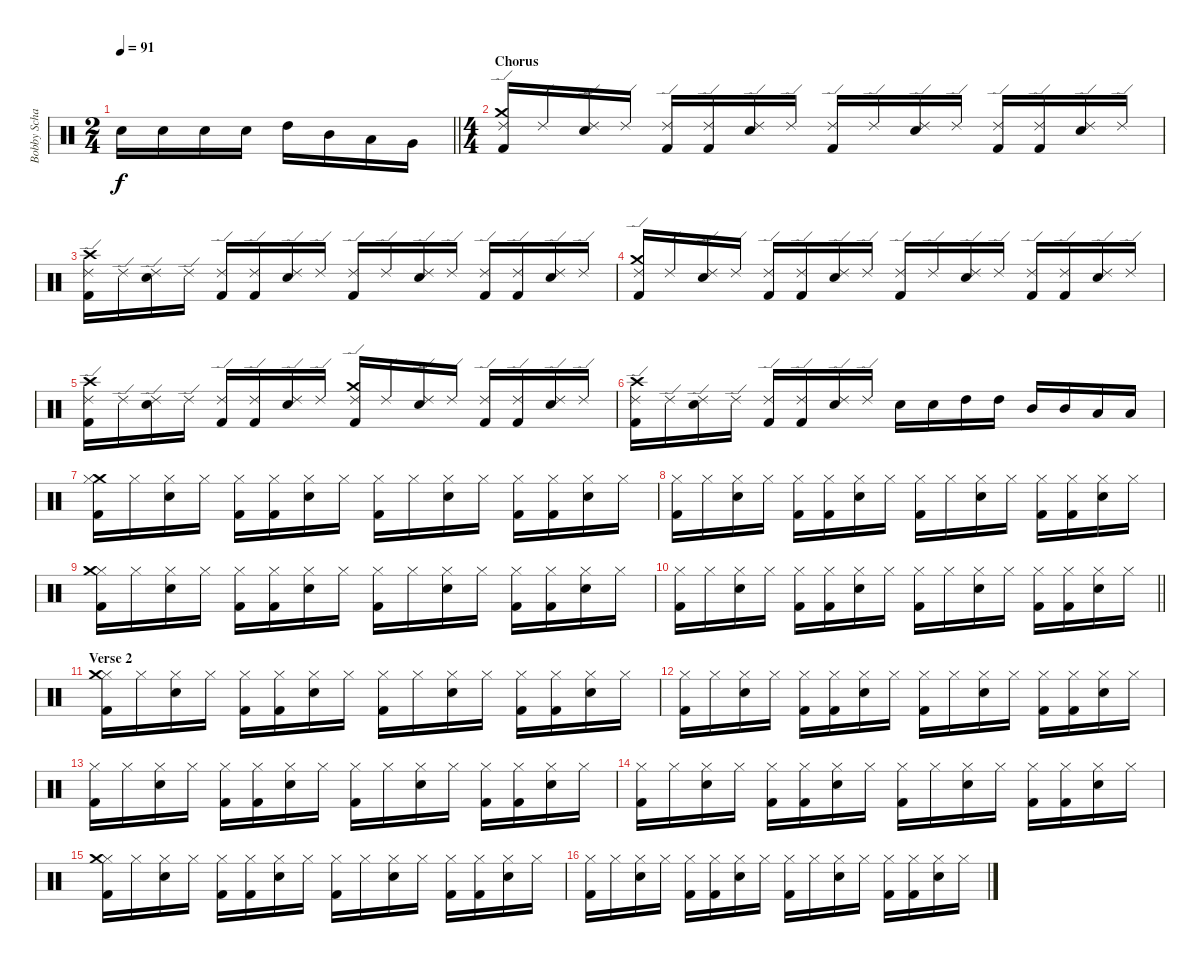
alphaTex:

\track ("Bobby Schayer " "Bobby Scha") {instrument percussion}
\staff {score}
\articulation defaults
\ts (2 4)
\tempo 91
\clef neutral
\barLineRight lightlight
\ks c "Snare (hit) 2".16{dy f} "Snare (hit) 2".16 "Snare (hit) 2".16 "Snare (hit) 2".16 "High Tom (hit)".16 "Mid Tom (hit)".16 "Low Tom (hit)".16 "Very Low Tom (hit)".16
|
\ts (4 4)
\section ("" "Chorus")
("Ride (edge) 2" "Crash medium (hit)" "Kick (hit) 2").16 "Ride (edge) 2".16 ("Ride (edge) 2" "Snare (hit) 2").16 "Ride (edge) 2".16 ("Ride (edge) 2" "Kick (hit) 2").16 ("Ride (edge) 2" "Kick (hit) 2").16 ("Ride (edge) 2" "Snare (hit) 2").16 "Ride (edge) 2".16 ("Ride (edge) 2" "Kick (hit) 2").16 "Ride (edge) 2".16 ("Ride (edge) 2" "Snare (hit) 2").16 "Ride (edge) 2".16 ("Ride (edge) 2" "Kick (hit) 2").16 ("Ride (edge) 2" "Kick (hit) 2").16 ("Ride (edge) 2" "Snare (hit) 2").16 "Ride (edge) 2".16 |
("Ride (edge) 2" "Crash high (hit)" "Kick (hit) 2").16 "Ride (edge) 2".16 ("Ride (edge) 2" "Snare (hit) 2").16 "Ride (edge) 2".16 ("Ride (edge) 2" "Kick (hit) 2").16 ("Ride (edge) 2" "Kick (hit) 2").16 ("Ride (edge) 2" "Snare (hit) 2").16 "Ride (edge) 2".16 ("Ride (edge) 2" "Kick (hit) 2").16 "Ride (edge) 2".16 ("Ride (edge) 2" "Snare (hit) 2").16 "Ride (edge) 2".16 ("Ride (edge) 2" "Kick (hit) 2").16 ("Ride (edge) 2" "Kick (hit) 2").16 ("Ride (edge) 2" "Snare (hit) 2").16 "Ride (edge) 2".16 |
("Ride (edge) 2" "Crash medium (hit)" "Kick (hit) 2").16 "Ride (edge) 2".16 ("Ride (edge) 2" "Snare (hit) 2").16 "Ride (edge) 2".16 ("Ride (edge) 2" "Kick (hit) 2").16 ("Ride (edge) 2" "Kick (hit) 2").16 ("Ride (edge) 2" "Snare (hit) 2").16 "Ride (edge) 2".16 ("Ride (edge) 2" "Kick (hit) 2").16 "Ride (edge) 2".16 ("Ride (edge) 2" "Snare (hit) 2").16 "Ride (edge) 2".16 ("Ride (edge) 2" "Kick (hit) 2").16 ("Ride (edge) 2" "Kick (hit) 2").16 ("Ride (edge) 2" "Snare (hit) 2").16 "Ride (edge) 2".16 |
("Ride (edge) 2" "Crash high (hit)" "Kick (hit) 2").16 "Ride (edge) 2".16 ("Ride (edge) 2" "Snare (hit) 2").16 "Ride (edge) 2".16 ("Ride (edge) 2" "Kick (hit) 2").16 ("Ride (edge) 2" "Kick (hit) 2").16 ("Ride (edge) 2" "Snare (hit) 2").16 "Ride (edge) 2".16 ("Ride (edge) 2" "Crash medium (hit)" "Kick (hit) 2").16 "Ride (edge) 2".16 ("Ride (edge) 2" "Snare (hit) 2").16 "Ride (edge) 2".16 ("Ride (edge) 2" "Kick (hit) 2").16 ("Ride (edge) 2" "Kick (hit) 2").16 ("Ride (edge) 2" "Snare (hit) 2").16 "Ride (edge) 2".16 |
("Ride (edge) 2" "Crash high (hit)" "Kick (hit) 2").16 "Ride (edge) 2".16 ("Ride (edge) 2" "Snare (hit) 2").16 "Ride (edge) 2".16 ("Ride (edge) 2" "Kick (hit) 2").16 ("Ride (edge) 2" "Kick (hit) 2").16 ("Ride (edge) 2" "Snare (hit) 2").16 "Ride (edge) 2".16 "Snare (hit) 2".16 "Snare (hit) 2".16 "High Tom (hit)".16 "High Tom (hit)".16 "Mid Tom (hit)".16 "Mid Tom (hit)".16 "Low Tom (hit)".16 "Low Tom (hit)".16 |
("Crash medium (hit)" "Hi-Hat (closed)" "Kick (hit) 2").16 "Hi-Hat (closed)".16 ("Hi-Hat (closed)" "Snare (hit) 2").16 "Hi-Hat (closed)".16 ("Hi-Hat (closed)" "Kick (hit) 2").16 ("Hi-Hat (closed)" "Kick (hit) 2").16 ("Hi-Hat (closed)" "Snare (hit) 2").16 "Hi-Hat (closed)".16 ("Hi-Hat (closed)" "Kick (hit) 2").16 "Hi-Hat (closed)".16 ("Hi-Hat (closed)" "Snare (hit) 2").16 "Hi-Hat (closed)".16 ("Hi-Hat (closed)" "Kick (hit) 2").16 ("Hi-Hat (closed)" "Kick (hit) 2").16 ("Hi-Hat (closed)" "Snare (hit) 2").16 "Hi-Hat (closed)".16 |
("Hi-Hat (closed)" "Kick (hit) 2").16 "Hi-Hat (closed)".16 ("Hi-Hat (closed)" "Snare (hit) 2").16 "Hi-Hat (closed)".16 ("Hi-Hat (closed)" "Kick (hit) 2").16 ("Hi-Hat (closed)" "Kick (hit) 2").16 ("Hi-Hat (closed)" "Snare (hit) 2").16 "Hi-Hat (closed)".16 ("Hi-Hat (closed)" "Kick (hit) 2").16 "Hi-Hat (closed)".16 ("Hi-Hat (closed)" "Snare (hit) 2").16 "Hi-Hat (closed)".16 ("Hi-Hat (closed)" "Kick (hit) 2").16 ("Hi-Hat (closed)" "Kick (hit) 2").16 ("Hi-Hat (closed)" "Snare (hit) 2").16 "Hi-Hat (closed)".16 |
("Hi-Hat (closed)" "Crash medium (hit)" "Kick (hit) 2").16 "Hi-Hat (closed)".16 ("Hi-Hat (closed)" "Snare (hit) 2").16 "Hi-Hat (closed)".16 ("Hi-Hat (closed)" "Kick (hit) 2").16 ("Hi-Hat (closed)" "Kick (hit) 2").16 ("Hi-Hat (closed)" "Snare (hit) 2").16 "Hi-Hat (closed)".16 ("Hi-Hat (closed)" "Kick (hit) 2").16 "Hi-Hat (closed)".16 ("Hi-Hat (closed)" "Snare (hit) 2").16 "Hi-Hat (closed)".16 ("Hi-Hat (closed)" "Kick (hit) 2").16 ("Hi-Hat (closed)" "Kick (hit) 2").16 ("Hi-Hat (closed)" "Snare (hit) 2").16 "Hi-Hat (closed)".16 |
\barLineRight lightlight
("Hi-Hat (closed)" "Kick (hit) 2").16 "Hi-Hat (closed)".16 ("Hi-Hat (closed)" "Snare (hit) 2").16 "Hi-Hat (closed)".16 ("Hi-Hat (closed)" "Kick (hit) 2").16 ("Hi-Hat (closed)" "Kick (hit) 2").16 ("Hi-Hat (closed)" "Snare (hit) 2").16 "Hi-Hat (closed)".16 ("Hi-Hat (closed)" "Kick (hit) 2").16 "Hi-Hat (closed)".16 ("Hi-Hat (closed)" "Snare (hit) 2").16 "Hi-Hat (closed)".16 ("Hi-Hat (closed)" "Kick (hit) 2").16 ("Hi-Hat (closed)" "Kick (hit) 2").16 ("Hi-Hat (closed)" "Snare (hit) 2").16 "Hi-Hat (closed)".16 |
\section ("" "Verse 2")
("Hi-Hat (closed)" "Crash medium (hit)" "Kick (hit) 2").16 "Hi-Hat (closed)".16 ("Hi-Hat (closed)" "Snare (hit) 2").16 "Hi-Hat (closed)".16 ("Hi-Hat (closed)" "Kick (hit) 2").16 ("Hi-Hat (closed)" "Kick (hit) 2").16 ("Hi-Hat (closed)" "Snare (hit) 2").16 "Hi-Hat (closed)".16 ("Hi-Hat (closed)" "Kick (hit) 2").16 "Hi-Hat (closed)".16 ("Hi-Hat (closed)" "Snare (hit) 2").16 "Hi-Hat (closed)".16 ("Hi-Hat (closed)" "Kick (hit) 2").16 ("Hi-Hat (closed)" "Kick (hit) 2").16 ("Hi-Hat (closed)" "Snare (hit) 2").16 "Hi-Hat (closed)".16 |
("Hi-Hat (closed)" "Kick (hit) 2").16 "Hi-Hat (closed)".16 ("Hi-Hat (closed)" "Snare (hit) 2").16 "Hi-Hat (closed)".16 ("Hi-Hat (closed)" "Kick (hit) 2").16 ("Hi-Hat (closed)" "Kick (hit) 2").16 ("Hi-Hat (closed)" "Snare (hit) 2").16 "Hi-Hat (closed)".16 ("Hi-Hat (closed)" "Kick (hit) 2").16 "Hi-Hat (closed)".16 ("Hi-Hat (closed)" "Snare (hit) 2").16 "Hi-Hat (closed)".16 ("Hi-Hat (closed)" "Kick (hit) 2").16 ("Hi-Hat (closed)" "Kick (hit) 2").16 ("Hi-Hat (closed)" "Snare (hit) 2").16 "Hi-Hat (closed)".16 |
("Hi-Hat (closed)" "Kick (hit) 2").16 "Hi-Hat (closed)".16 ("Hi-Hat (closed)" "Snare (hit) 2").16 "Hi-Hat (closed)".16 ("Hi-Hat (closed)" "Kick (hit) 2").16 ("Hi-Hat (closed)" "Kick (hit) 2").16 ("Hi-Hat (closed)" "Snare (hit) 2").16 "Hi-Hat (closed)".16 ("Hi-Hat (closed)" "Kick (hit) 2").16 "Hi-Hat (closed)".16 ("Hi-Hat (closed)" "Snare (hit) 2").16 "Hi-Hat (closed)".16 ("Hi-Hat (closed)" "Kick (hit) 2").16 ("Hi-Hat (closed)" "Kick (hit) 2").16 ("Hi-Hat (closed)" "Snare (hit) 2").16 "Hi-Hat (closed)".16 |
("Hi-Hat (closed)" "Kick (hit) 2").16 "Hi-Hat (closed)".16 ("Hi-Hat (closed)" "Snare (hit) 2").16 "Hi-Hat (closed)".16 ("Hi-Hat (closed)" "Kick (hit) 2").16 ("Hi-Hat (closed)" "Kick (hit) 2").16 ("Hi-Hat (closed)" "Snare (hit) 2").16 "Hi-Hat (closed)".16 ("Hi-Hat (closed)" "Kick (hit) 2").16 "Hi-Hat (closed)".16 ("Hi-Hat (closed)" "Snare (hit) 2").16 "Hi-Hat (closed)".16 ("Hi-Hat (closed)" "Kick (hit) 2").16 ("Hi-Hat (closed)" "Kick (hit) 2").16 ("Hi-Hat (closed)" "Snare (hit) 2").16 "Hi-Hat (closed)".16 |
("Hi-Hat (closed)" "Crash medium (hit)" "Kick (hit) 2").16 "Hi-Hat (closed)".16 ("Hi-Hat (closed)" "Snare (hit) 2").16 "Hi-Hat (closed)".16 ("Hi-Hat (closed)" "Kick (hit) 2").16 ("Hi-Hat (closed)" "Kick (hit) 2").16 ("Hi-Hat (closed)" "Snare (hit) 2").16 "Hi-Hat (closed)".16 ("Hi-Hat (closed)" "Kick (hit) 2").16 "Hi-Hat (closed)".16 ("Hi-Hat (closed)" "Snare (hit) 2").16 "Hi-Hat (closed)".16 ("Hi-Hat (closed)" "Kick (hit) 2").16 ("Hi-Hat (closed)" "Kick (hit) 2").16 ("Hi-Hat (closed)" "Snare (hit) 2").16 "Hi-Hat (closed)".16 |
("Hi-Hat (closed)" "Kick (hit) 2").16 "Hi-Hat (closed)".16 ("Hi-Hat (closed)" "Snare (hit) 2").16 "Hi-Hat (closed)".16 ("Hi-Hat (closed)" "Kick (hit) 2").16 ("Hi-Hat (closed)" "Kick (hit) 2").16 ("Hi-Hat (closed)" "Snare (hit) 2").16 "Hi-Hat (closed)".16 ("Hi-Hat (closed)" "Kick (hit) 2").16 "Hi-Hat (closed)".16 ("Hi-Hat (closed)" "Snare (hit) 2").16 "Hi-Hat (closed)".16 ("Hi-Hat (closed)" "Kick (hit) 2").16 ("Hi-Hat (closed)" "Kick (hit) 2").16 ("Hi-Hat (closed)" "Snare (hit) 2").16 "Hi-Hat (closed)".16
